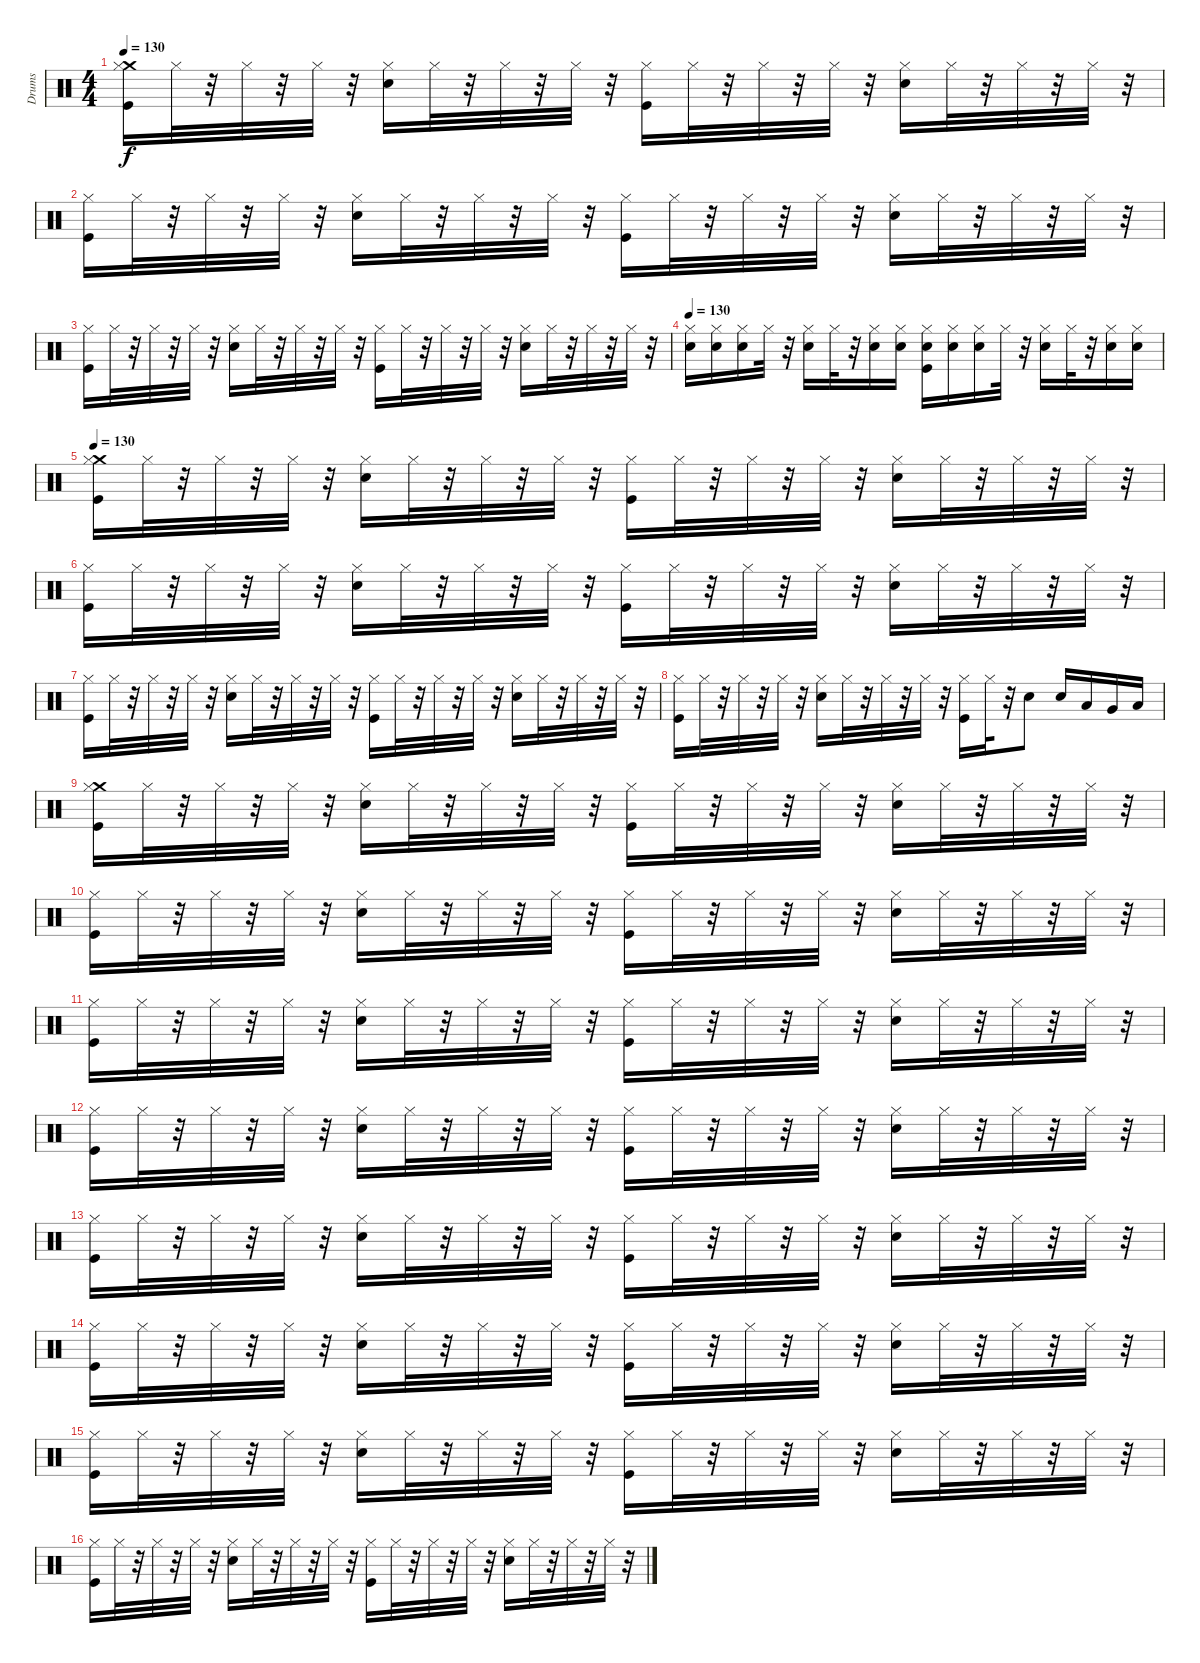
\track ("Drums" "Drums") {instrument percussion}
\staff {score}
\articulation defaults
\ts (4 4)
\tempo 130
\clef neutral
\ks c
("Crash medium (hit)" "Hi-Hat (closed)" "Kick (hit)").16{dy f} "Hi-Hat (closed)".32 r.32 "Hi-Hat (closed)".32 r.32 "Hi-Hat (closed)".32 r.32 ("Hi-Hat (closed)" "Snare (hit) 2").16 "Hi-Hat (closed)".32 r.32 "Hi-Hat (closed)".32 r.32 "Hi-Hat (closed)".32 r.32 ("Hi-Hat (closed)" "Kick (hit)").16 "Hi-Hat (closed)".32 r.32 "Hi-Hat (closed)".32 r.32 "Hi-Hat (closed)".32 r.32 ("Hi-Hat (closed)" "Snare (hit) 2").16 "Hi-Hat (closed)".32 r.32 "Hi-Hat (closed)".32 r.32 "Hi-Hat (closed)".32 r.32 |
("Hi-Hat (closed)" "Kick (hit)").16 "Hi-Hat (closed)".32 r.32 "Hi-Hat (closed)".32 r.32 "Hi-Hat (closed)".32 r.32 ("Hi-Hat (closed)" "Snare (hit) 2").16 "Hi-Hat (closed)".32 r.32 "Hi-Hat (closed)".32 r.32 "Hi-Hat (closed)".32 r.32 ("Hi-Hat (closed)" "Kick (hit)").16 "Hi-Hat (closed)".32 r.32 "Hi-Hat (closed)".32 r.32 "Hi-Hat (closed)".32 r.32 ("Hi-Hat (closed)" "Snare (hit) 2").16 "Hi-Hat (closed)".32 r.32 "Hi-Hat (closed)".32 r.32 "Hi-Hat (closed)".32 r.32 |
("Hi-Hat (closed)" "Kick (hit)").16 "Hi-Hat (closed)".32 r.32 "Hi-Hat (closed)".32 r.32 "Hi-Hat (closed)".32 r.32 ("Hi-Hat (closed)" "Snare (hit) 2").16 "Hi-Hat (closed)".32 r.32 "Hi-Hat (closed)".32 r.32 "Hi-Hat (closed)".32 r.32 ("Hi-Hat (closed)" "Kick (hit)").16 "Hi-Hat (closed)".32 r.32 "Hi-Hat (closed)".32 r.32 "Hi-Hat (closed)".32 r.32 ("Hi-Hat (closed)" "Snare (hit) 2").16 "Hi-Hat (closed)".32 r.32 "Hi-Hat (closed)".32 r.32 "Hi-Hat (closed)".32 r.32 |
\tempo 130
("Hi-Hat (closed)" "Snare (hit) 2").16 ("Electric Snare (hit)" "Hi-Hat (closed)").16 ("Snare (hit) 2" "Hi-Hat (closed)").16 "Hi-Hat (closed)".32 r.32 ("Snare (hit) 2" "Hi-Hat (closed)").16 "Hi-Hat (closed)".32 r.32 ("Snare (hit) 2" "Hi-Hat (closed)").16 ("Snare (hit) 2" "Hi-Hat (closed)").16 ("Snare (hit) 2" "Hi-Hat (closed)" "Kick (hit)").16 ("Snare (hit) 2" "Hi-Hat (closed)").16 ("Snare (hit) 2" "Hi-Hat (closed)").16 "Hi-Hat (closed)".32 r.32 ("Snare (hit) 2" "Hi-Hat (closed)").16 "Hi-Hat (closed)".32 r.32 ("Snare (hit) 2" "Hi-Hat (closed)").16 ("Snare (hit) 2" "Hi-Hat (closed)").16 |
\tempo 130
("Crash medium (hit)" "Hi-Hat (closed)" "Kick (hit)").16 "Hi-Hat (closed)".32 r.32 "Hi-Hat (closed)".32 r.32 "Hi-Hat (closed)".32 r.32 ("Hi-Hat (closed)" "Snare (hit) 2").16 "Hi-Hat (closed)".32 r.32 "Hi-Hat (closed)".32 r.32 "Hi-Hat (closed)".32 r.32 ("Hi-Hat (closed)" "Kick (hit)").16 "Hi-Hat (closed)".32 r.32 "Hi-Hat (closed)".32 r.32 "Hi-Hat (closed)".32 r.32 ("Hi-Hat (closed)" "Snare (hit) 2").16 "Hi-Hat (closed)".32 r.32 "Hi-Hat (closed)".32 r.32 "Hi-Hat (closed)".32 r.32 |
("Hi-Hat (closed)" "Kick (hit)").16 "Hi-Hat (closed)".32 r.32 "Hi-Hat (closed)".32 r.32 "Hi-Hat (closed)".32 r.32 ("Hi-Hat (closed)" "Snare (hit) 2").16 "Hi-Hat (closed)".32 r.32 "Hi-Hat (closed)".32 r.32 "Hi-Hat (closed)".32 r.32 ("Hi-Hat (closed)" "Kick (hit)").16 "Hi-Hat (closed)".32 r.32 "Hi-Hat (closed)".32 r.32 "Hi-Hat (closed)".32 r.32 ("Hi-Hat (closed)" "Snare (hit) 2").16 "Hi-Hat (closed)".32 r.32 "Hi-Hat (closed)".32 r.32 "Hi-Hat (closed)".32 r.32 |
("Hi-Hat (closed)" "Kick (hit)").16 "Hi-Hat (closed)".32 r.32 "Hi-Hat (closed)".32 r.32 "Hi-Hat (closed)".32 r.32 ("Hi-Hat (closed)" "Snare (hit) 2").16 "Hi-Hat (closed)".32 r.32 "Hi-Hat (closed)".32 r.32 "Hi-Hat (closed)".32 r.32 ("Hi-Hat (closed)" "Kick (hit)").16 "Hi-Hat (closed)".32 r.32 "Hi-Hat (closed)".32 r.32 "Hi-Hat (closed)".32 r.32 ("Hi-Hat (closed)" "Snare (hit) 2").16 "Hi-Hat (closed)".32 r.32 "Hi-Hat (closed)".32 r.32 "Hi-Hat (closed)".32 r.32 |
("Kick (hit)" "Hi-Hat (closed)").16 "Hi-Hat (closed)".32 r.32 "Hi-Hat (closed)".32 r.32 "Hi-Hat (closed)".32 r.32 ("Snare (hit) 2" "Hi-Hat (closed)").16 "Hi-Hat (closed)".32 r.32 "Hi-Hat (closed)".32 r.32 "Hi-Hat (closed)".32 r.32 ("Kick (hit)" "Hi-Hat (closed)").16 "Hi-Hat (closed)".32 r.32 "Snare (hit) 2".8 "Snare (hit) 2".16 "Low Tom (hit)".16 "Very Low Tom (hit)".16 "Low Floor Tom (hit)".16 |
("Crash medium (hit)" "Hi-Hat (closed)" "Kick (hit)").16 "Hi-Hat (closed)".32 r.32 "Hi-Hat (closed)".32 r.32 "Hi-Hat (closed)".32 r.32 ("Hi-Hat (closed)" "Snare (hit) 2").16 "Hi-Hat (closed)".32 r.32 "Hi-Hat (closed)".32 r.32 "Hi-Hat (closed)".32 r.32 ("Hi-Hat (closed)" "Kick (hit)").16 "Hi-Hat (closed)".32 r.32 "Hi-Hat (closed)".32 r.32 "Hi-Hat (closed)".32 r.32 ("Hi-Hat (closed)" "Snare (hit) 2").16 "Hi-Hat (closed)".32 r.32 "Hi-Hat (closed)".32 r.32 "Hi-Hat (closed)".32 r.32 |
("Hi-Hat (closed)" "Kick (hit)").16 "Hi-Hat (closed)".32 r.32 "Hi-Hat (closed)".32 r.32 "Hi-Hat (closed)".32 r.32 ("Hi-Hat (closed)" "Snare (hit) 2").16 "Hi-Hat (closed)".32 r.32 "Hi-Hat (closed)".32 r.32 "Hi-Hat (closed)".32 r.32 ("Hi-Hat (closed)" "Kick (hit)").16 "Hi-Hat (closed)".32 r.32 "Hi-Hat (closed)".32 r.32 "Hi-Hat (closed)".32 r.32 ("Hi-Hat (closed)" "Snare (hit) 2").16 "Hi-Hat (closed)".32 r.32 "Hi-Hat (closed)".32 r.32 "Hi-Hat (closed)".32 r.32 |
("Hi-Hat (closed)" "Kick (hit)").16 "Hi-Hat (closed)".32 r.32 "Hi-Hat (closed)".32 r.32 "Hi-Hat (closed)".32 r.32 ("Hi-Hat (closed)" "Snare (hit) 2").16 "Hi-Hat (closed)".32 r.32 "Hi-Hat (closed)".32 r.32 "Hi-Hat (closed)".32 r.32 ("Hi-Hat (closed)" "Kick (hit)").16 "Hi-Hat (closed)".32 r.32 "Hi-Hat (closed)".32 r.32 "Hi-Hat (closed)".32 r.32 ("Hi-Hat (closed)" "Snare (hit) 2").16 "Hi-Hat (closed)".32 r.32 "Hi-Hat (closed)".32 r.32 "Hi-Hat (closed)".32 r.32 |
("Hi-Hat (closed)" "Kick (hit)").16 "Hi-Hat (closed)".32 r.32 "Hi-Hat (closed)".32 r.32 "Hi-Hat (closed)".32 r.32 ("Hi-Hat (closed)" "Snare (hit) 2").16 "Hi-Hat (closed)".32 r.32 "Hi-Hat (closed)".32 r.32 "Hi-Hat (closed)".32 r.32 ("Hi-Hat (closed)" "Kick (hit)").16 "Hi-Hat (closed)".32 r.32 "Hi-Hat (closed)".32 r.32 "Hi-Hat (closed)".32 r.32 ("Hi-Hat (closed)" "Snare (hit) 2").16 "Hi-Hat (closed)".32 r.32 "Hi-Hat (closed)".32 r.32 "Hi-Hat (closed)".32 r.32 |
("Hi-Hat (closed)" "Kick (hit)").16 "Hi-Hat (closed)".32 r.32 "Hi-Hat (closed)".32 r.32 "Hi-Hat (closed)".32 r.32 ("Hi-Hat (closed)" "Snare (hit) 2").16 "Hi-Hat (closed)".32 r.32 "Hi-Hat (closed)".32 r.32 "Hi-Hat (closed)".32 r.32 ("Hi-Hat (closed)" "Kick (hit)").16 "Hi-Hat (closed)".32 r.32 "Hi-Hat (closed)".32 r.32 "Hi-Hat (closed)".32 r.32 ("Hi-Hat (closed)" "Snare (hit) 2").16 "Hi-Hat (closed)".32 r.32 "Hi-Hat (closed)".32 r.32 "Hi-Hat (closed)".32 r.32 |
("Hi-Hat (closed)" "Kick (hit)").16 "Hi-Hat (closed)".32 r.32 "Hi-Hat (closed)".32 r.32 "Hi-Hat (closed)".32 r.32 ("Hi-Hat (closed)" "Snare (hit) 2").16 "Hi-Hat (closed)".32 r.32 "Hi-Hat (closed)".32 r.32 "Hi-Hat (closed)".32 r.32 ("Hi-Hat (closed)" "Kick (hit)").16 "Hi-Hat (closed)".32 r.32 "Hi-Hat (closed)".32 r.32 "Hi-Hat (closed)".32 r.32 ("Hi-Hat (closed)" "Snare (hit) 2").16 "Hi-Hat (closed)".32 r.32 "Hi-Hat (closed)".32 r.32 "Hi-Hat (closed)".32 r.32 |
("Hi-Hat (closed)" "Kick (hit)").16 "Hi-Hat (closed)".32 r.32 "Hi-Hat (closed)".32 r.32 "Hi-Hat (closed)".32 r.32 ("Hi-Hat (closed)" "Snare (hit) 2").16 "Hi-Hat (closed)".32 r.32 "Hi-Hat (closed)".32 r.32 "Hi-Hat (closed)".32 r.32 ("Hi-Hat (closed)" "Kick (hit)").16 "Hi-Hat (closed)".32 r.32 "Hi-Hat (closed)".32 r.32 "Hi-Hat (closed)".32 r.32 ("Hi-Hat (closed)" "Snare (hit) 2").16 "Hi-Hat (closed)".32 r.32 "Hi-Hat (closed)".32 r.32 "Hi-Hat (closed)".32 r.32 |
("Hi-Hat (closed)" "Kick (hit)").16 "Hi-Hat (closed)".32 r.32 "Hi-Hat (closed)".32 r.32 "Hi-Hat (closed)".32 r.32 ("Hi-Hat (closed)" "Snare (hit) 2").16 "Hi-Hat (closed)".32 r.32 "Hi-Hat (closed)".32 r.32 "Hi-Hat (closed)".32 r.32 ("Hi-Hat (closed)" "Kick (hit)").16 "Hi-Hat (closed)".32 r.32 "Hi-Hat (closed)".32 r.32 "Hi-Hat (closed)".32 r.32 ("Hi-Hat (closed)" "Snare (hit) 2").16 "Hi-Hat (closed)".32 r.32 "Hi-Hat (closed)".32 r.32 "Hi-Hat (closed)".32 r.32
